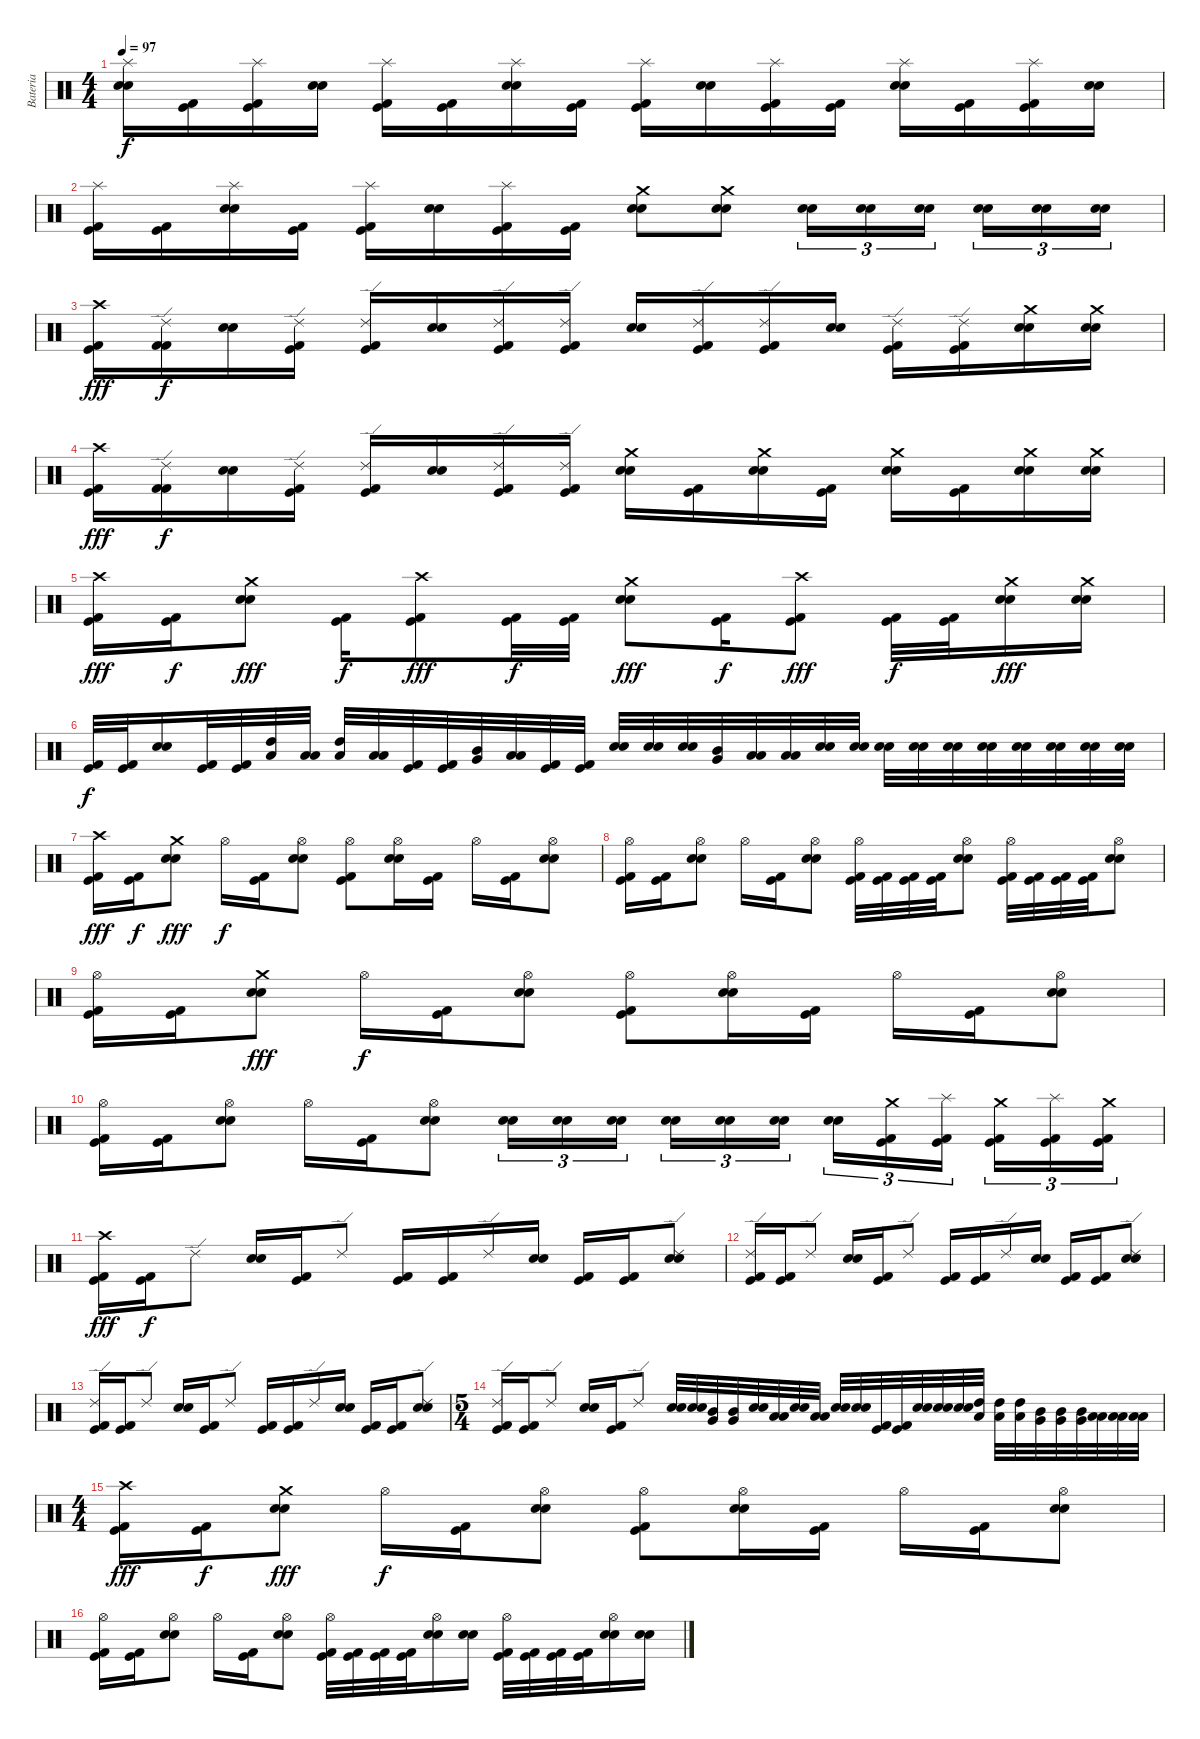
\track ("Bateria" "Bateria") {instrument percussion}
\staff {score}
\articulation defaults
\ts (4 4)
\tempo 97
\clef neutral
\ks c
("Splash (hit)" "Electric Snare (hit)" "Snare (hit) 2").16{dy f} ("Kick (hit) 2" "Kick (hit)").16 ("Splash (hit)" "Kick (hit) 2" "Kick (hit)").16 ("Electric Snare (hit)" "Snare (hit) 2").16 ("Splash (hit)" "Kick (hit) 2" "Kick (hit)").16 ("Kick (hit) 2" "Kick (hit)").16 ("Splash (hit)" "Electric Snare (hit)" "Snare (hit) 2").16 ("Kick (hit) 2" "Kick (hit)").16 ("Splash (hit)" "Kick (hit) 2" "Kick (hit)").16 ("Electric Snare (hit)" "Snare (hit) 2").16 ("Splash (hit)" "Kick (hit) 2" "Kick (hit)").16 ("Kick (hit) 2" "Kick (hit)").16 ("Splash (hit)" "Electric Snare (hit)" "Snare (hit) 2").16 ("Kick (hit) 2" "Kick (hit)").16 ("Splash (hit)" "Kick (hit) 2" "Kick (hit)").16 ("Electric Snare (hit)" "Snare (hit) 2").16 |
("Splash (hit)" "Kick (hit) 2" "Kick (hit)").16 ("Kick (hit) 2" "Kick (hit)").16 ("Splash (hit)" "Electric Snare (hit)" "Snare (hit) 2").16 ("Kick (hit) 2" "Kick (hit)").16 ("Splash (hit)" "Kick (hit) 2" "Kick (hit)").16 ("Electric Snare (hit)" "Snare (hit) 2").16 ("Splash (hit)" "Kick (hit) 2" "Kick (hit)").16 ("Kick (hit) 2" "Kick (hit)").16 ("Crash medium (hit)" "Electric Snare (hit)" "Snare (hit) 2").8 ("Crash medium (hit)" "Electric Snare (hit)" "Snare (hit) 2").8 ("Electric Snare (hit)" "Snare (hit) 2").16{tu (3 2)} ("Electric Snare (hit)" "Snare (hit) 2").16{tu (3 2)} ("Electric Snare (hit)" "Snare (hit) 2").16{tu (3 2)} ("Electric Snare (hit)" "Snare (hit) 2").16{tu (3 2)} ("Electric Snare (hit)" "Snare (hit) 2").16{tu (3 2)} ("Electric Snare (hit)" "Snare (hit) 2").16{tu (3 2)} |
("Crash high (hit)" "Kick (hit) 2" "Kick (hit)").16{dy fff} ("Ride (edge) 2" "Kick (hit) 2" "Kick (hit) 2").16{dy f} ("Electric Snare (hit)" "Snare (hit) 2").16 ("Ride (edge) 2" "Kick (hit) 2" "Kick (hit)").16 ("Ride (edge) 2" "Kick (hit) 2" "Kick (hit)").16 ("Electric Snare (hit)" "Snare (hit) 2").16 ("Ride (edge) 2" "Kick (hit) 2" "Kick (hit)").16 ("Ride (edge) 2" "Kick (hit) 2" "Kick (hit)").16 ("Electric Snare (hit)" "Snare (hit) 2").16 ("Ride (edge) 2" "Kick (hit) 2" "Kick (hit)").16 ("Ride (edge) 2" "Kick (hit) 2" "Kick (hit)").16 ("Electric Snare (hit)" "Snare (hit) 2").16 ("Ride (edge) 2" "Kick (hit) 2" "Kick (hit)").16 ("Ride (edge) 2" "Kick (hit) 2" "Kick (hit)").16 ("Crash medium (hit)" "Electric Snare (hit)" "Snare (hit) 2").16 ("Crash medium (hit)" "Electric Snare (hit)" "Snare (hit) 2").16 |
("Crash high (hit)" "Kick (hit) 2" "Kick (hit)").16{dy fff} ("Ride (edge) 2" "Kick (hit) 2" "Kick (hit) 2").16{dy f} ("Electric Snare (hit)" "Snare (hit) 2").16 ("Ride (edge) 2" "Kick (hit) 2" "Kick (hit)").16 ("Ride (edge) 2" "Kick (hit) 2" "Kick (hit)").16 ("Electric Snare (hit)" "Snare (hit) 2").16 ("Ride (edge) 2" "Kick (hit) 2" "Kick (hit)").16 ("Ride (edge) 2" "Kick (hit) 2" "Kick (hit)").16 ("Crash medium (hit)" "Electric Snare (hit)" "Snare (hit) 2").16 ("Kick (hit) 2" "Kick (hit)").16 ("Crash medium (hit)" "Electric Snare (hit)" "Snare (hit) 2").16 ("Kick (hit) 2" "Kick (hit)").16 ("Crash medium (hit)" "Electric Snare (hit)" "Snare (hit) 2").16 ("Kick (hit) 2" "Kick (hit)").16 ("Crash medium (hit)" "Electric Snare (hit)" "Snare (hit) 2").16 ("Crash medium (hit)" "Electric Snare (hit)" "Snare (hit) 2").16 |
("Crash high (hit)" "Kick (hit) 2" "Kick (hit)").16{dy fff} ("Kick (hit) 2" "Kick (hit)").16{dy f} ("Crash medium (hit)" "Electric Snare (hit)" "Snare (hit) 2").8{dy fff} ("Kick (hit) 2" "Kick (hit)").16{dy f} ("Crash high (hit)" "Kick (hit) 2" "Kick (hit)").8{dy fff} ("Kick (hit) 2" "Kick (hit)").32{dy f} ("Kick (hit) 2" "Kick (hit)").32 ("Crash medium (hit)" "Electric Snare (hit)" "Snare (hit) 2").8{dy fff} ("Kick (hit) 2" "Kick (hit)").16{dy f} ("Crash high (hit)" "Kick (hit) 2" "Kick (hit)").8{dy fff} ("Kick (hit) 2" "Kick (hit)").32{dy f} ("Kick (hit) 2" "Kick (hit)").32 ("Crash medium (hit)" "Electric Snare (hit)" "Snare (hit) 2").16{dy fff} ("Crash medium (hit)" "Electric Snare (hit)" "Snare (hit) 2").16 |
("Kick (hit) 2" "Kick (hit)").32{dy f} ("Kick (hit) 2" "Kick (hit)").32 ("Electric Snare (hit)" "Snare (hit) 2").16 ("Kick (hit) 2" "Kick (hit)").32 ("Kick (hit) 2" "Kick (hit)").32 ("High Tom (hit)" "Low Tom (hit)").32 ("Low Tom (hit)" "Low Floor Tom (hit)").32 ("High Tom (hit)" "Low Tom (hit)").32 ("Low Tom (hit)" "Low Floor Tom (hit)").32 ("Kick (hit) 2" "Kick (hit)").32 ("Kick (hit) 2" "Kick (hit)").32 ("Mid Tom (hit)" "Very Low Tom (hit)").32 ("Low Tom (hit)" "Low Floor Tom (hit)").32 ("Kick (hit) 2" "Kick (hit)").32 ("Kick (hit) 2" "Kick (hit)").32 ("Electric Snare (hit)" "Snare (hit) 2").32 ("Electric Snare (hit)" "Snare (hit) 2").32 ("Electric Snare (hit)" "Snare (hit) 2").32 ("Mid Tom (hit)" "Very Low Tom (hit)").32 ("Low Tom (hit)" "Low Floor Tom (hit)").32 ("Low Tom (hit)" "Low Floor Tom (hit)").32 ("Electric Snare (hit)" "Snare (hit) 2").32 ("Electric Snare (hit)" "Snare (hit) 2").32 ("Electric Snare (hit)" "Snare (hit) 2").32 ("Electric Snare (hit)" "Snare (hit) 2").32 ("Electric Snare (hit)" "Snare (hit) 2").32 ("Electric Snare (hit)" "Snare (hit) 2").32 ("Electric Snare (hit)" "Snare (hit) 2").32 ("Electric Snare (hit)" "Snare (hit) 2").32 ("Electric Snare (hit)" "Snare (hit) 2").32 ("Electric Snare (hit)" "Snare (hit) 2").32 |
("Crash high (hit)" "Kick (hit) 2" "Kick (hit)").16{dy fff} ("Kick (hit) 2" "Kick (hit)").16{dy f} ("Crash medium (hit)" "Electric Snare (hit)" "Snare (hit) 2").8{dy fff} "Hi-Hat (open)".16{dy f} ("Kick (hit) 2" "Kick (hit)").16 ("Hi-Hat (open)" "Electric Snare (hit)" "Snare (hit) 2").8 ("Hi-Hat (open)" "Kick (hit) 2" "Kick (hit)").8 ("Hi-Hat (open)" "Electric Snare (hit)" "Snare (hit) 2").16 ("Kick (hit) 2" "Kick (hit)").16 "Hi-Hat (open)".16 ("Kick (hit) 2" "Kick (hit)").16 ("Hi-Hat (open)" "Electric Snare (hit)" "Snare (hit) 2").8 |
("Hi-Hat (open)" "Kick (hit) 2" "Kick (hit)").16 ("Kick (hit) 2" "Kick (hit)").16 ("Hi-Hat (open)" "Electric Snare (hit)" "Snare (hit) 2").8 "Hi-Hat (open)".16 ("Kick (hit) 2" "Kick (hit)").16 ("Hi-Hat (open)" "Electric Snare (hit)" "Snare (hit) 2").8 ("Hi-Hat (open)" "Kick (hit) 2" "Kick (hit)").32 ("Kick (hit) 2" "Kick (hit)").32 ("Kick (hit) 2" "Kick (hit)").32 ("Kick (hit) 2" "Kick (hit)").32 ("Hi-Hat (open)" "Electric Snare (hit)" "Snare (hit) 2").8 ("Hi-Hat (open)" "Kick (hit) 2" "Kick (hit)").32 ("Kick (hit) 2" "Kick (hit)").32 ("Kick (hit) 2" "Kick (hit)").32 ("Kick (hit) 2" "Kick (hit)").32 ("Hi-Hat (open)" "Electric Snare (hit)" "Snare (hit) 2").8 |
("Hi-Hat (open)" "Kick (hit) 2" "Kick (hit)").16 ("Kick (hit) 2" "Kick (hit)").16 ("Crash medium (hit)" "Electric Snare (hit)" "Snare (hit) 2").8{dy fff} "Hi-Hat (open)".16{dy f} ("Kick (hit) 2" "Kick (hit)").16 ("Hi-Hat (open)" "Electric Snare (hit)" "Snare (hit) 2").8 ("Hi-Hat (open)" "Kick (hit) 2" "Kick (hit)").8 ("Hi-Hat (open)" "Electric Snare (hit)" "Snare (hit) 2").16 ("Kick (hit) 2" "Kick (hit)").16 "Hi-Hat (open)".16 ("Kick (hit) 2" "Kick (hit)").16 ("Hi-Hat (open)" "Electric Snare (hit)" "Snare (hit) 2").8 |
("Hi-Hat (open)" "Kick (hit) 2" "Kick (hit)").16 ("Kick (hit) 2" "Kick (hit)").16 ("Hi-Hat (open)" "Electric Snare (hit)" "Snare (hit) 2").8 "Hi-Hat (open)".16 ("Kick (hit) 2" "Kick (hit)").16 ("Hi-Hat (open)" "Electric Snare (hit)" "Snare (hit) 2").8 ("Electric Snare (hit)" "Snare (hit) 2").16{tu (3 2)} ("Electric Snare (hit)" "Snare (hit) 2").16{tu (3 2)} ("Electric Snare (hit)" "Snare (hit) 2").16{tu (3 2)} ("Electric Snare (hit)" "Snare (hit) 2").16{tu (3 2)} ("Electric Snare (hit)" "Snare (hit) 2").16{tu (3 2)} ("Electric Snare (hit)" "Snare (hit) 2").16{tu (3 2)} ("Electric Snare (hit)" "Snare (hit) 2").16{tu (3 2)} ("Crash medium (hit)" "Kick (hit) 2" "Kick (hit)").16{tu (3 2)} ("Splash (hit)" "Kick (hit) 2" "Kick (hit)").16{tu (3 2)} ("Crash medium (hit)" "Kick (hit) 2" "Kick (hit)").16{tu (3 2)} ("Splash (hit)" "Kick (hit) 2" "Kick (hit)").16{tu (3 2)} ("Crash medium (hit)" "Kick (hit) 2" "Kick (hit)").16{tu (3 2)} |
("Crash high (hit)" "Kick (hit) 2" "Kick (hit)").16{dy fff} ("Kick (hit) 2" "Kick (hit)").16{dy f} "Ride (edge) 2".8 ("Electric Snare (hit)" "Snare (hit) 2").16 ("Kick (hit) 2" "Kick (hit)").16 "Ride (edge) 2".8 ("Kick (hit) 2" "Kick (hit)").16 ("Kick (hit) 2" "Kick (hit)").16 "Ride (edge) 2".16 ("Electric Snare (hit)" "Snare (hit) 2").16 ("Kick (hit) 2" "Kick (hit)").16 ("Kick (hit) 2" "Kick (hit)").16 ("Ride (edge) 2" "Electric Snare (hit)" "Snare (hit) 2").8 |
("Ride (edge) 2" "Kick (hit) 2" "Kick (hit)").16 ("Kick (hit) 2" "Kick (hit)").16 "Ride (edge) 2".8 ("Electric Snare (hit)" "Snare (hit) 2").16 ("Kick (hit) 2" "Kick (hit)").16 "Ride (edge) 2".8 ("Kick (hit) 2" "Kick (hit)").16 ("Kick (hit) 2" "Kick (hit)").16 "Ride (edge) 2".16 ("Electric Snare (hit)" "Snare (hit) 2").16 ("Kick (hit) 2" "Kick (hit)").16 ("Kick (hit) 2" "Kick (hit)").16 ("Ride (edge) 2" "Electric Snare (hit)" "Snare (hit) 2").8 |
("Ride (edge) 2" "Kick (hit) 2" "Kick (hit)").16 ("Kick (hit) 2" "Kick (hit)").16 "Ride (edge) 2".8 ("Electric Snare (hit)" "Snare (hit) 2").16 ("Kick (hit) 2" "Kick (hit)").16 "Ride (edge) 2".8 ("Kick (hit) 2" "Kick (hit)").16 ("Kick (hit) 2" "Kick (hit)").16 "Ride (edge) 2".16 ("Electric Snare (hit)" "Snare (hit) 2").16 ("Kick (hit) 2" "Kick (hit)").16 ("Kick (hit) 2" "Kick (hit)").16 ("Ride (edge) 2" "Electric Snare (hit)" "Snare (hit) 2").8 |
\ts (5 4)
("Ride (edge) 2" "Kick (hit) 2" "Kick (hit)").16 ("Kick (hit) 2" "Kick (hit)").16 "Ride (edge) 2".8 ("Electric Snare (hit)" "Snare (hit) 2").16 ("Kick (hit) 2" "Kick (hit)").16 "Ride (edge) 2".8 ("Electric Snare (hit)" "Snare (hit) 2").32 ("Electric Snare (hit)" "Snare (hit) 2").32 ("Mid Tom (hit)" "Very Low Tom (hit)").32 ("Mid Tom (hit)" "Very Low Tom (hit)").32 ("Electric Snare (hit)" "Snare (hit) 2").32 ("Low Tom (hit)" "Low Floor Tom (hit)").32 ("Electric Snare (hit)" "Snare (hit) 2").32 ("Low Floor Tom (hit)" "Low Floor Tom (hit)").32 ("Electric Snare (hit)" "Snare (hit) 2").32 ("Electric Snare (hit)" "Snare (hit) 2").32 ("Kick (hit) 2" "Kick (hit)").32 ("Kick (hit) 2" "Kick (hit)").32 ("Electric Snare (hit)" "Snare (hit) 2").32 ("Electric Snare (hit)" "Snare (hit) 2").32 ("Electric Snare (hit)" "Snare (hit) 2").32 ("High Tom (hit)" "Low Tom (hit)").32 ("High Tom (hit)" "Low Tom (hit)").32 ("High Tom (hit)" "Low Tom (hit)").32 ("Mid Tom (hit)" "Very Low Tom (hit)").32 ("Mid Tom (hit)" "Very Low Tom (hit)").32 ("Mid Tom (hit)" "Very Low Tom (hit)").32 ("Low Tom (hit)" "Low Floor Tom (hit)").32 ("Low Tom (hit)" "Low Floor Tom (hit)").32 ("Low Tom (hit)" "Low Floor Tom (hit)").32 |
\ts (4 4)
("Crash high (hit)" "Kick (hit) 2" "Kick (hit)").16{dy fff} ("Kick (hit) 2" "Kick (hit)").16{dy f} ("Crash medium (hit)" "Electric Snare (hit)" "Snare (hit) 2").8{dy fff} "Hi-Hat (open)".16{dy f} ("Kick (hit) 2" "Kick (hit)").16 ("Hi-Hat (open)" "Electric Snare (hit)" "Snare (hit) 2").8 ("Hi-Hat (open)" "Kick (hit) 2" "Kick (hit)").8 ("Hi-Hat (open)" "Electric Snare (hit)" "Snare (hit) 2").16 ("Kick (hit) 2" "Kick (hit)").16 "Hi-Hat (open)".16 ("Kick (hit) 2" "Kick (hit)").16 ("Hi-Hat (open)" "Electric Snare (hit)" "Snare (hit) 2").8 |
("Hi-Hat (open)" "Kick (hit) 2" "Kick (hit)").16 ("Kick (hit) 2" "Kick (hit)").16 ("Hi-Hat (open)" "Electric Snare (hit)" "Snare (hit) 2").8 "Hi-Hat (open)".16 ("Kick (hit) 2" "Kick (hit)").16 ("Hi-Hat (open)" "Electric Snare (hit)" "Snare (hit) 2").8 ("Hi-Hat (open)" "Kick (hit) 2" "Kick (hit)").32 ("Kick (hit) 2" "Kick (hit)").32 ("Kick (hit) 2" "Kick (hit)").32 ("Kick (hit) 2" "Kick (hit)").32 ("Hi-Hat (open)" "Electric Snare (hit)" "Snare (hit) 2").16 ("Electric Snare (hit)" "Snare (hit) 2").16 ("Hi-Hat (open)" "Kick (hit) 2" "Kick (hit)").32 ("Kick (hit) 2" "Kick (hit)").32 ("Kick (hit) 2" "Kick (hit)").32 ("Kick (hit) 2" "Kick (hit)").32 ("Hi-Hat (open)" "Electric Snare (hit)" "Snare (hit) 2").16 ("Electric Snare (hit)" "Snare (hit) 2").16
